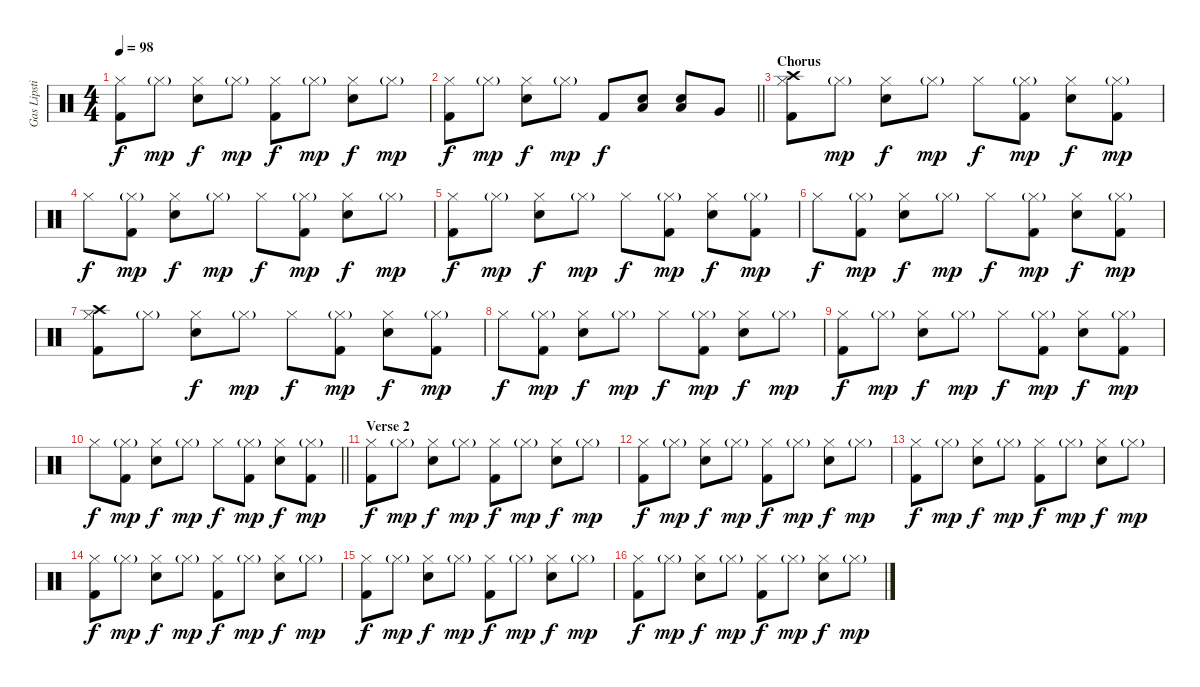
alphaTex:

\track ("Gas Lipstick (Drums)" "Gas Lipsti") {instrument percussion}
\staff {score}
\articulation defaults
\ts (4 4)
\tempo 98
\clef neutral
\ks c
("Hi-Hat (closed)" "Kick (hit) 2").8{dy f} "Hi-Hat (closed)"{g}.8{dy mp} ("Hi-Hat (closed)" "Snare (hit) 2").8{dy f} "Hi-Hat (closed)"{g}.8{dy mp} ("Hi-Hat (closed)" "Kick (hit) 2").8{dy f} "Hi-Hat (closed)"{g}.8{dy mp} ("Hi-Hat (closed)" "Snare (hit) 2").8{dy f} "Hi-Hat (closed)"{g}.8{dy mp} |
\barLineRight lightlight
("Hi-Hat (closed)" "Kick (hit) 2").8{dy f} "Hi-Hat (closed)"{g}.8{dy mp} ("Hi-Hat (closed)" "Snare (hit) 2").8{dy f} "Hi-Hat (closed)"{g}.8{dy mp} "Kick (hit) 2".8{dy f} ("Low Tom (hit)" "Snare (hit) 2").8 ("Low Tom (hit)" "Snare (hit) 2").8 "Very Low Tom (hit)".8 |
\section ("" "Chorus")
("Crash high (hit)" "Hi-Hat (closed)" "Kick (hit) 2").8 "Hi-Hat (closed)"{g}.8{dy mp} ("Hi-Hat (closed)" "Snare (hit) 2").8{dy f} "Hi-Hat (closed)"{g}.8{dy mp} "Hi-Hat (closed)".8{dy f} ("Hi-Hat (closed)"{g} "Kick (hit) 2").8{dy mp} ("Hi-Hat (closed)" "Snare (hit) 2").8{dy f} ("Hi-Hat (closed)"{g} "Kick (hit) 2").8{dy mp} |
"Hi-Hat (closed)".8{dy f} ("Hi-Hat (closed)"{g} "Kick (hit) 2").8{dy mp} ("Hi-Hat (closed)" "Snare (hit) 2").8{dy f} "Hi-Hat (closed)"{g}.8{dy mp} "Hi-Hat (closed)".8{dy f} ("Hi-Hat (closed)"{g} "Kick (hit) 2").8{dy mp} ("Hi-Hat (closed)" "Snare (hit) 2").8{dy f} "Hi-Hat (closed)"{g}.8{dy mp} |
("Hi-Hat (closed)" "Kick (hit) 2").8{dy f} "Hi-Hat (closed)"{g}.8{dy mp} ("Hi-Hat (closed)" "Snare (hit) 2").8{dy f} "Hi-Hat (closed)"{g}.8{dy mp} "Hi-Hat (closed)".8{dy f} ("Hi-Hat (closed)"{g} "Kick (hit) 2").8{dy mp} ("Hi-Hat (closed)" "Snare (hit) 2").8{dy f} ("Hi-Hat (closed)"{g} "Kick (hit) 2").8{dy mp} |
"Hi-Hat (closed)".8{dy f} ("Hi-Hat (closed)"{g} "Kick (hit) 2").8{dy mp} ("Hi-Hat (closed)" "Snare (hit) 2").8{dy f} "Hi-Hat (closed)"{g}.8{dy mp} "Hi-Hat (closed)".8{dy f} ("Hi-Hat (closed)"{g} "Kick (hit) 2").8{dy mp} ("Hi-Hat (closed)" "Snare (hit) 2").8{dy f} ("Hi-Hat (closed)"{g} "Kick (hit) 2").8{dy mp} |
("Crash high (hit)" "Hi-Hat (closed)" "Kick (hit) 2").8 "Hi-Hat (closed)"{g}.8 ("Hi-Hat (closed)" "Snare (hit) 2").8{dy f} "Hi-Hat (closed)"{g}.8{dy mp} "Hi-Hat (closed)".8{dy f} ("Hi-Hat (closed)"{g} "Kick (hit) 2").8{dy mp} ("Hi-Hat (closed)" "Snare (hit) 2").8{dy f} ("Hi-Hat (closed)"{g} "Kick (hit) 2").8{dy mp} |
"Hi-Hat (closed)".8{dy f} ("Hi-Hat (closed)"{g} "Kick (hit) 2").8{dy mp} ("Hi-Hat (closed)" "Snare (hit) 2").8{dy f} "Hi-Hat (closed)"{g}.8{dy mp} "Hi-Hat (closed)".8{dy f} ("Hi-Hat (closed)"{g} "Kick (hit) 2").8{dy mp} ("Hi-Hat (closed)" "Snare (hit) 2").8{dy f} "Hi-Hat (closed)"{g}.8{dy mp} |
("Hi-Hat (closed)" "Kick (hit) 2").8{dy f} "Hi-Hat (closed)"{g}.8{dy mp} ("Hi-Hat (closed)" "Snare (hit) 2").8{dy f} "Hi-Hat (closed)"{g}.8{dy mp} "Hi-Hat (closed)".8{dy f} ("Hi-Hat (closed)"{g} "Kick (hit) 2").8{dy mp} ("Hi-Hat (closed)" "Snare (hit) 2").8{dy f} ("Hi-Hat (closed)"{g} "Kick (hit) 2").8{dy mp} |
\barLineRight lightlight "Hi-Hat (closed)".8{dy f}
("Hi-Hat (closed)"{g} "Kick (hit) 2").8{dy mp} ("Hi-Hat (closed)" "Snare (hit) 2").8{dy f} "Hi-Hat (closed)"{g}.8{dy mp} "Hi-Hat (closed)".8{dy f} ("Hi-Hat (closed)"{g} "Kick (hit) 2").8{dy mp} ("Hi-Hat (closed)" "Snare (hit) 2").8{dy f} ("Hi-Hat (closed)"{g} "Kick (hit) 2").8{dy mp} |
\section ("" "Verse 2")
("Hi-Hat (closed)" "Kick (hit) 2").8{dy f} "Hi-Hat (closed)"{g}.8{dy mp} ("Hi-Hat (closed)" "Snare (hit) 2").8{dy f} "Hi-Hat (closed)"{g}.8{dy mp} ("Hi-Hat (closed)" "Kick (hit) 2").8{dy f} "Hi-Hat (closed)"{g}.8{dy mp} ("Hi-Hat (closed)" "Snare (hit) 2").8{dy f} "Hi-Hat (closed)"{g}.8{dy mp} |
("Hi-Hat (closed)" "Kick (hit) 2").8{dy f} "Hi-Hat (closed)"{g}.8{dy mp} ("Hi-Hat (closed)" "Snare (hit) 2").8{dy f} "Hi-Hat (closed)"{g}.8{dy mp} ("Hi-Hat (closed)" "Kick (hit) 2").8{dy f} "Hi-Hat (closed)"{g}.8{dy mp} ("Hi-Hat (closed)" "Snare (hit) 2").8{dy f} "Hi-Hat (closed)"{g}.8{dy mp} |
("Hi-Hat (closed)" "Kick (hit) 2").8{dy f} "Hi-Hat (closed)"{g}.8{dy mp} ("Hi-Hat (closed)" "Snare (hit) 2").8{dy f} "Hi-Hat (closed)"{g}.8{dy mp} ("Hi-Hat (closed)" "Kick (hit) 2").8{dy f} "Hi-Hat (closed)"{g}.8{dy mp} ("Hi-Hat (closed)" "Snare (hit) 2").8{dy f} "Hi-Hat (closed)"{g}.8{dy mp} |
("Hi-Hat (closed)" "Kick (hit) 2").8{dy f} "Hi-Hat (closed)"{g}.8{dy mp} ("Hi-Hat (closed)" "Snare (hit) 2").8{dy f} "Hi-Hat (closed)"{g}.8{dy mp} ("Hi-Hat (closed)" "Kick (hit) 2").8{dy f} "Hi-Hat (closed)"{g}.8{dy mp} ("Hi-Hat (closed)" "Snare (hit) 2").8{dy f} "Hi-Hat (closed)"{g}.8{dy mp} |
("Hi-Hat (closed)" "Kick (hit) 2").8{dy f} "Hi-Hat (closed)"{g}.8{dy mp} ("Hi-Hat (closed)" "Snare (hit) 2").8{dy f} "Hi-Hat (closed)"{g}.8{dy mp} ("Hi-Hat (closed)" "Kick (hit) 2").8{dy f} "Hi-Hat (closed)"{g}.8{dy mp} ("Hi-Hat (closed)" "Snare (hit) 2").8{dy f} "Hi-Hat (closed)"{g}.8{dy mp} |
("Hi-Hat (closed)" "Kick (hit) 2").8{dy f} "Hi-Hat (closed)"{g}.8{dy mp} ("Hi-Hat (closed)" "Snare (hit) 2").8{dy f} "Hi-Hat (closed)"{g}.8{dy mp} ("Hi-Hat (closed)" "Kick (hit) 2").8{dy f} "Hi-Hat (closed)"{g}.8{dy mp} ("Hi-Hat (closed)" "Snare (hit) 2").8{dy f} "Hi-Hat (closed)"{g}.8{dy mp}
